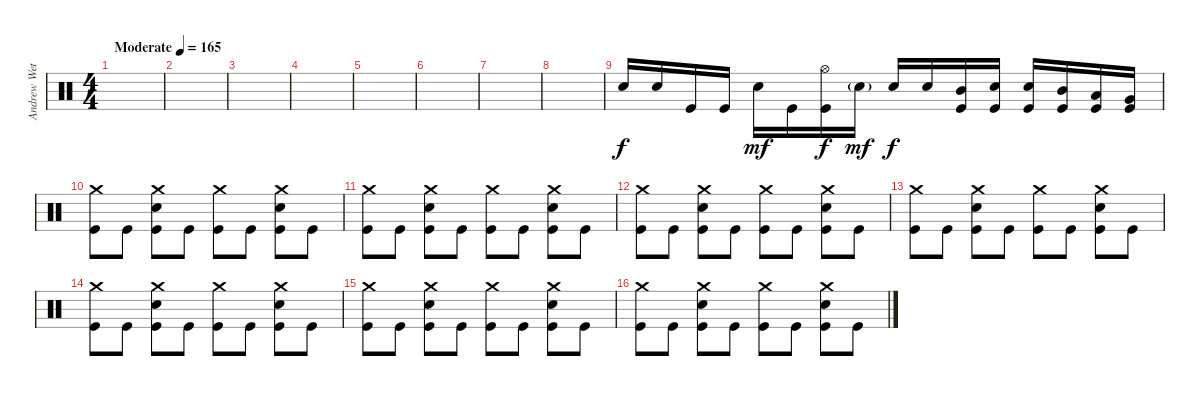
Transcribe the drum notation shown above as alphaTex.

\track ("Andrew Wetzel" "Andrew Wet") {instrument percussion}
\staff {score}
\articulation defaults
\ts (4 4)
\tempo (165 "Moderate")
\clef neutral
\ks c
|
|
|
|
|
|
|
|
"Snare (hit) 2".16 "Snare (hit) 2".16 "Kick (hit)".16 "Kick (hit)".16 "Snare (hit) 2".16{dy mf} "Kick (hit)".16 ("Hi-Hat (open)" "Kick (hit)").16{dy f} "Snare (hit) 2"{g}.16{dy mf} "Snare (hit) 2".16{dy f} "Snare (hit) 2".16 ("Mid Tom (hit)" "Kick (hit)").16 ("Snare (hit) 2" "Kick (hit)").16 ("Snare (hit) 2" "Kick (hit)").16 ("Mid Tom (hit)" "Kick (hit)").16 ("Low Tom (hit)" "Kick (hit)").16 ("Very Low Tom (hit)" "Kick (hit)").16 |
("Crash medium (hit)" "Kick (hit)").8 "Kick (hit)".8 ("Crash medium (hit)" "Snare (hit) 2" "Kick (hit)").8 "Kick (hit)".8 ("Crash medium (hit)" "Kick (hit)").8 "Kick (hit)".8 ("Crash medium (hit)" "Snare (hit) 2" "Kick (hit)").8 "Kick (hit)".8 |
("Crash medium (hit)" "Kick (hit)").8 "Kick (hit)".8 ("Crash medium (hit)" "Snare (hit) 2" "Kick (hit)").8 "Kick (hit)".8 ("Crash medium (hit)" "Kick (hit)").8 "Kick (hit)".8 ("Crash medium (hit)" "Snare (hit) 2" "Kick (hit)").8 "Kick (hit)".8 |
("Crash medium (hit)" "Kick (hit)").8 "Kick (hit)".8 ("Crash medium (hit)" "Snare (hit) 2" "Kick (hit)").8 "Kick (hit)".8 ("Crash medium (hit)" "Kick (hit)").8 "Kick (hit)".8 ("Crash medium (hit)" "Snare (hit) 2" "Kick (hit)").8 "Kick (hit)".8 |
("Crash medium (hit)" "Kick (hit)").8 "Kick (hit)".8 ("Crash medium (hit)" "Snare (hit) 2" "Kick (hit)").8 "Kick (hit)".8 ("Crash medium (hit)" "Kick (hit)").8 "Kick (hit)".8 ("Crash medium (hit)" "Snare (hit) 2" "Kick (hit)").8 "Kick (hit)".8 |
("Crash medium (hit)" "Kick (hit)").8 "Kick (hit)".8 ("Crash medium (hit)" "Snare (hit) 2" "Kick (hit)").8 "Kick (hit)".8 ("Crash medium (hit)" "Kick (hit)").8 "Kick (hit)".8 ("Crash medium (hit)" "Snare (hit) 2" "Kick (hit)").8 "Kick (hit)".8 |
("Crash medium (hit)" "Kick (hit)").8 "Kick (hit)".8 ("Crash medium (hit)" "Snare (hit) 2" "Kick (hit)").8 "Kick (hit)".8 ("Crash medium (hit)" "Kick (hit)").8 "Kick (hit)".8 ("Crash medium (hit)" "Snare (hit) 2" "Kick (hit)").8 "Kick (hit)".8 |
("Crash medium (hit)" "Kick (hit)").8 "Kick (hit)".8 ("Crash medium (hit)" "Snare (hit) 2" "Kick (hit)").8 "Kick (hit)".8 ("Crash medium (hit)" "Kick (hit)").8 "Kick (hit)".8 ("Crash medium (hit)" "Snare (hit) 2" "Kick (hit)").8 "Kick (hit)".8
